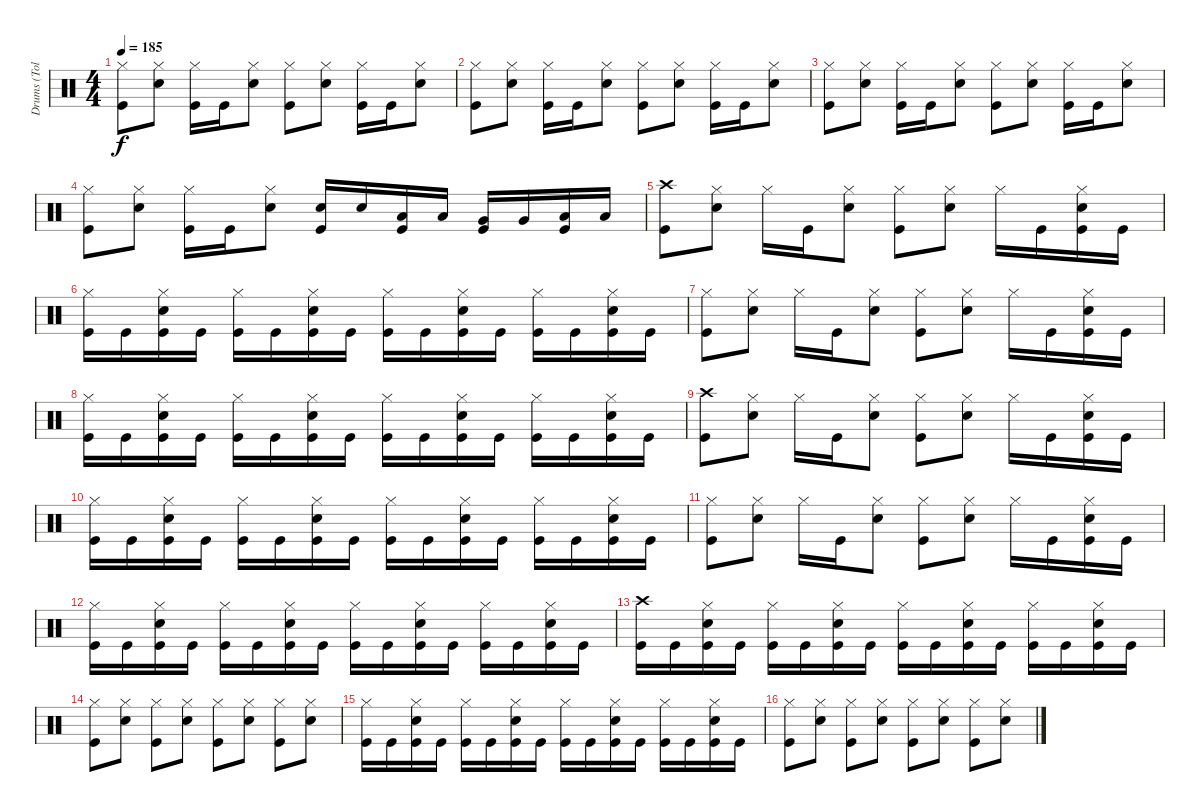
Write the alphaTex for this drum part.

\track ("Drums (Tolik)" "Drums (Tol") {instrument percussion}
\staff {score}
\articulation defaults
\ts (4 4)
\tempo 185
\clef neutral
\ks c
("Hi-Hat (closed)" "Kick (hit)").8{dy f} ("Hi-Hat (closed)" "Electric Snare (hit)").8 ("Hi-Hat (closed)" "Kick (hit)").16 "Kick (hit)".16 ("Hi-Hat (closed)" "Electric Snare (hit)").8 ("Hi-Hat (closed)" "Kick (hit)").8 ("Hi-Hat (closed)" "Electric Snare (hit)").8 ("Hi-Hat (closed)" "Kick (hit)").16 "Kick (hit)".16 ("Hi-Hat (closed)" "Electric Snare (hit)").8 |
("Hi-Hat (closed)" "Kick (hit)").8 ("Hi-Hat (closed)" "Electric Snare (hit)").8 ("Hi-Hat (closed)" "Kick (hit)").16 "Kick (hit)".16 ("Hi-Hat (closed)" "Electric Snare (hit)").8 ("Hi-Hat (closed)" "Kick (hit)").8 ("Hi-Hat (closed)" "Electric Snare (hit)").8 ("Hi-Hat (closed)" "Kick (hit)").16 "Kick (hit)".16 ("Hi-Hat (closed)" "Electric Snare (hit)").8 |
("Hi-Hat (closed)" "Kick (hit)").8 ("Hi-Hat (closed)" "Electric Snare (hit)").8 ("Hi-Hat (closed)" "Kick (hit)").16 "Kick (hit)".16 ("Hi-Hat (closed)" "Electric Snare (hit)").8 ("Hi-Hat (closed)" "Kick (hit)").8 ("Hi-Hat (closed)" "Electric Snare (hit)").8 ("Hi-Hat (closed)" "Kick (hit)").16 "Kick (hit)".16 ("Hi-Hat (closed)" "Electric Snare (hit)").8 |
("Hi-Hat (closed)" "Kick (hit)").8 ("Hi-Hat (closed)" "Electric Snare (hit)").8 ("Hi-Hat (closed)" "Kick (hit)").16 "Kick (hit)".16 ("Hi-Hat (closed)" "Electric Snare (hit)").8 ("Kick (hit)" "Electric Snare (hit)").16 "Electric Snare (hit)".16 ("Kick (hit)" "Low Tom (hit)").16 "Low Tom (hit)".16 ("Kick (hit)" "Very Low Tom (hit)").16 "Very Low Tom (hit)".16 ("Kick (hit)" "Low Floor Tom (hit)").16 "Low Floor Tom (hit)".16 |
("Crash high (hit)" "Kick (hit)").8 ("Hi-Hat (closed)" "Electric Snare (hit)").8 "Hi-Hat (closed)".16 "Kick (hit)".16 ("Hi-Hat (closed)" "Electric Snare (hit)").8 ("Hi-Hat (closed)" "Kick (hit)").8 ("Hi-Hat (closed)" "Electric Snare (hit)").8 "Hi-Hat (closed)".16 "Kick (hit)".16 ("Hi-Hat (closed)" "Kick (hit)" "Electric Snare (hit)").16 "Kick (hit)".16 |
("Hi-Hat (closed)" "Kick (hit)").16 "Kick (hit)".16 ("Hi-Hat (closed)" "Kick (hit)" "Electric Snare (hit)").16 "Kick (hit)".16 ("Hi-Hat (closed)" "Kick (hit)").16 "Kick (hit)".16 ("Hi-Hat (closed)" "Kick (hit)" "Electric Snare (hit)").16 "Kick (hit)".16 ("Hi-Hat (closed)" "Kick (hit)").16 "Kick (hit)".16 ("Hi-Hat (closed)" "Kick (hit)" "Electric Snare (hit)").16 "Kick (hit)".16 ("Hi-Hat (closed)" "Kick (hit)").16 "Kick (hit)".16 ("Hi-Hat (closed)" "Kick (hit)" "Electric Snare (hit)").16 "Kick (hit)".16 |
("Hi-Hat (closed)" "Kick (hit)").8 ("Hi-Hat (closed)" "Electric Snare (hit)").8 "Hi-Hat (closed)".16 "Kick (hit)".16 ("Hi-Hat (closed)" "Electric Snare (hit)").8 ("Hi-Hat (closed)" "Kick (hit)").8 ("Hi-Hat (closed)" "Electric Snare (hit)").8 "Hi-Hat (closed)".16 "Kick (hit)".16 ("Hi-Hat (closed)" "Kick (hit)" "Electric Snare (hit)").16 "Kick (hit)".16 |
("Hi-Hat (closed)" "Kick (hit)").16 "Kick (hit)".16 ("Hi-Hat (closed)" "Kick (hit)" "Electric Snare (hit)").16 "Kick (hit)".16 ("Hi-Hat (closed)" "Kick (hit)").16 "Kick (hit)".16 ("Hi-Hat (closed)" "Kick (hit)" "Electric Snare (hit)").16 "Kick (hit)".16 ("Hi-Hat (closed)" "Kick (hit)").16 "Kick (hit)".16 ("Hi-Hat (closed)" "Kick (hit)" "Electric Snare (hit)").16 "Kick (hit)".16 ("Hi-Hat (closed)" "Kick (hit)").16 "Kick (hit)".16 ("Hi-Hat (closed)" "Kick (hit)" "Electric Snare (hit)").16 "Kick (hit)".16 |
("Crash high (hit)" "Kick (hit)").8 ("Hi-Hat (closed)" "Electric Snare (hit)").8 "Hi-Hat (closed)".16 "Kick (hit)".16 ("Hi-Hat (closed)" "Electric Snare (hit)").8 ("Hi-Hat (closed)" "Kick (hit)").8 ("Hi-Hat (closed)" "Electric Snare (hit)").8 "Hi-Hat (closed)".16 "Kick (hit)".16 ("Hi-Hat (closed)" "Kick (hit)" "Electric Snare (hit)").16 "Kick (hit)".16 |
("Hi-Hat (closed)" "Kick (hit)").16 "Kick (hit)".16 ("Hi-Hat (closed)" "Kick (hit)" "Electric Snare (hit)").16 "Kick (hit)".16 ("Hi-Hat (closed)" "Kick (hit)").16 "Kick (hit)".16 ("Hi-Hat (closed)" "Kick (hit)" "Electric Snare (hit)").16 "Kick (hit)".16 ("Hi-Hat (closed)" "Kick (hit)").16 "Kick (hit)".16 ("Hi-Hat (closed)" "Kick (hit)" "Electric Snare (hit)").16 "Kick (hit)".16 ("Hi-Hat (closed)" "Kick (hit)").16 "Kick (hit)".16 ("Hi-Hat (closed)" "Kick (hit)" "Electric Snare (hit)").16 "Kick (hit)".16 |
("Hi-Hat (closed)" "Kick (hit)").8 ("Hi-Hat (closed)" "Electric Snare (hit)").8 "Hi-Hat (closed)".16 "Kick (hit)".16 ("Hi-Hat (closed)" "Electric Snare (hit)").8 ("Hi-Hat (closed)" "Kick (hit)").8 ("Hi-Hat (closed)" "Electric Snare (hit)").8 "Hi-Hat (closed)".16 "Kick (hit)".16 ("Hi-Hat (closed)" "Kick (hit)" "Electric Snare (hit)").16 "Kick (hit)".16 |
("Hi-Hat (closed)" "Kick (hit)").16 "Kick (hit)".16 ("Hi-Hat (closed)" "Kick (hit)" "Electric Snare (hit)").16 "Kick (hit)".16 ("Hi-Hat (closed)" "Kick (hit)").16 "Kick (hit)".16 ("Hi-Hat (closed)" "Kick (hit)" "Electric Snare (hit)").16 "Kick (hit)".16 ("Hi-Hat (closed)" "Kick (hit)").16 "Kick (hit)".16 ("Hi-Hat (closed)" "Kick (hit)" "Electric Snare (hit)").16 "Kick (hit)".16 ("Hi-Hat (closed)" "Kick (hit)").16 "Kick (hit)".16 ("Hi-Hat (closed)" "Kick (hit)" "Electric Snare (hit)").16 "Kick (hit)".16 |
("Crash high (hit)" "Kick (hit)").16 "Kick (hit)".16 ("Hi-Hat (closed)" "Kick (hit)" "Electric Snare (hit)").16 "Kick (hit)".16 ("Hi-Hat (closed)" "Kick (hit)").16 "Kick (hit)".16 ("Hi-Hat (closed)" "Kick (hit)" "Electric Snare (hit)").16 "Kick (hit)".16 ("Hi-Hat (closed)" "Kick (hit)").16 "Kick (hit)".16 ("Hi-Hat (closed)" "Kick (hit)" "Electric Snare (hit)").16 "Kick (hit)".16 ("Hi-Hat (closed)" "Kick (hit)").16 "Kick (hit)".16 ("Hi-Hat (closed)" "Kick (hit)" "Electric Snare (hit)").16 "Kick (hit)".16 |
("Hi-Hat (closed)" "Kick (hit)").8 ("Hi-Hat (closed)" "Electric Snare (hit)").8 ("Hi-Hat (closed)" "Kick (hit)").8 ("Hi-Hat (closed)" "Electric Snare (hit)").8 ("Hi-Hat (closed)" "Kick (hit)").8 ("Hi-Hat (closed)" "Electric Snare (hit)").8 ("Hi-Hat (closed)" "Kick (hit)").8 ("Hi-Hat (closed)" "Electric Snare (hit)").8 |
("Hi-Hat (closed)" "Kick (hit)").16 "Kick (hit)".16 ("Hi-Hat (closed)" "Kick (hit)" "Electric Snare (hit)").16 "Kick (hit)".16 ("Hi-Hat (closed)" "Kick (hit)").16 "Kick (hit)".16 ("Hi-Hat (closed)" "Kick (hit)" "Electric Snare (hit)").16 "Kick (hit)".16 ("Hi-Hat (closed)" "Kick (hit)").16 "Kick (hit)".16 ("Hi-Hat (closed)" "Kick (hit)" "Electric Snare (hit)").16 "Kick (hit)".16 ("Hi-Hat (closed)" "Kick (hit)").16 "Kick (hit)".16 ("Hi-Hat (closed)" "Kick (hit)" "Electric Snare (hit)").16 "Kick (hit)".16 |
("Hi-Hat (closed)" "Kick (hit)").8 ("Hi-Hat (closed)" "Electric Snare (hit)").8 ("Hi-Hat (closed)" "Kick (hit)").8 ("Hi-Hat (closed)" "Electric Snare (hit)").8 ("Hi-Hat (closed)" "Kick (hit)").8 ("Hi-Hat (closed)" "Electric Snare (hit)").8 ("Hi-Hat (closed)" "Kick (hit)").8 ("Hi-Hat (closed)" "Electric Snare (hit)").8
